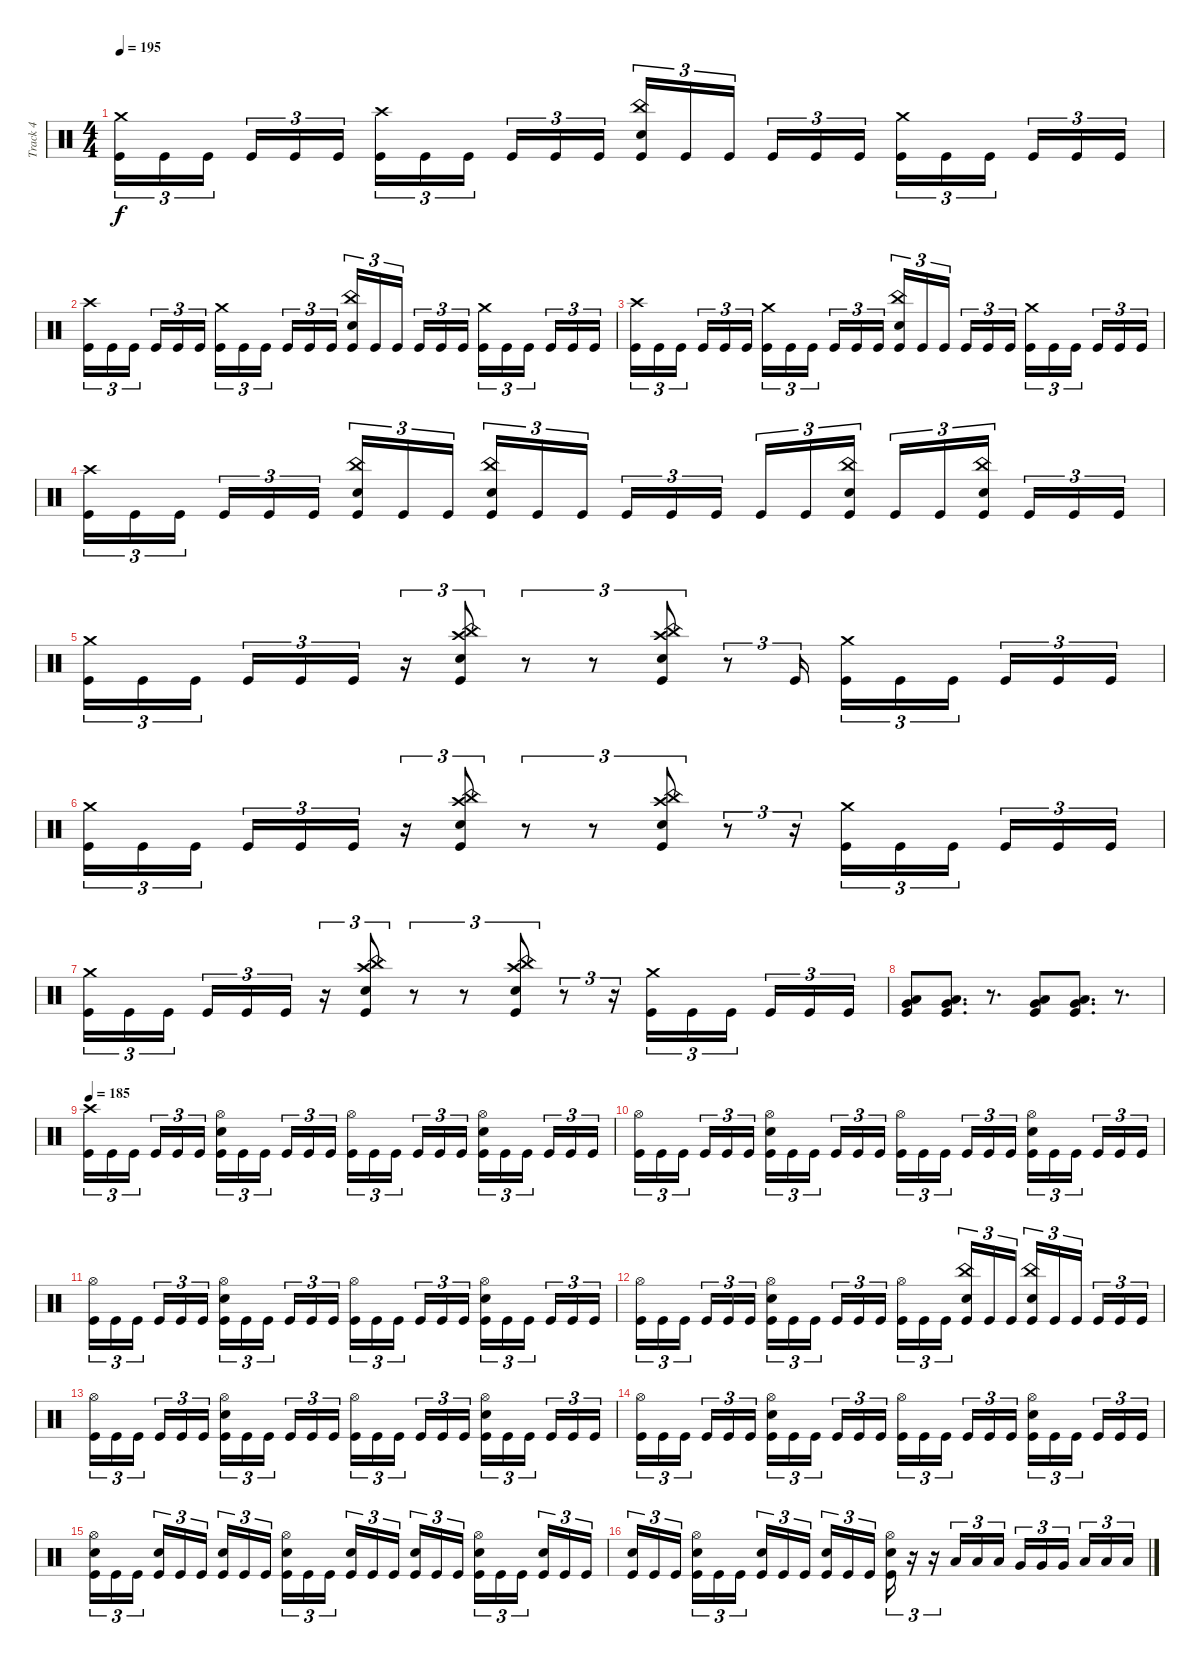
\track ("Track 4" "Track 4") {instrument percussion}
\staff {score}
\articulation defaults
\ts (4 4)
\tempo 195
\clef neutral
\ks c
("Crash medium (hit)" "Kick (hit)").16{tu (3 2) dy f} "Kick (hit)".16{tu (3 2)} "Kick (hit)".16{tu (3 2)} "Kick (hit)".16{tu (3 2)} "Kick (hit)".16{tu (3 2)} "Kick (hit)".16{tu (3 2)} ("Crash high (hit)" "Kick (hit)").16{tu (3 2)} "Kick (hit)".16{tu (3 2)} "Kick (hit)".16{tu (3 2)} "Kick (hit)".16{tu (3 2)} "Kick (hit)".16{tu (3 2)} "Kick (hit)".16{tu (3 2)} ("China (hit)" "Electric Snare (hit)" "Kick (hit)").16{tu (3 2)} "Kick (hit)".16{tu (3 2)} "Kick (hit)".16{tu (3 2)} "Kick (hit)".16{tu (3 2)} "Kick (hit)".16{tu (3 2)} "Kick (hit)".16{tu (3 2)} ("Crash medium (hit)" "Kick (hit)").16{tu (3 2)} "Kick (hit)".16{tu (3 2)} "Kick (hit)".16{tu (3 2)} "Kick (hit)".16{tu (3 2)} "Kick (hit)".16{tu (3 2)} "Kick (hit)".16{tu (3 2)} |
("Crash high (hit)" "Kick (hit)").16{tu (3 2)} "Kick (hit)".16{tu (3 2)} "Kick (hit)".16{tu (3 2)} "Kick (hit)".16{tu (3 2)} "Kick (hit)".16{tu (3 2)} "Kick (hit)".16{tu (3 2)} ("Crash medium (hit)" "Kick (hit)").16{tu (3 2)} "Kick (hit)".16{tu (3 2)} "Kick (hit)".16{tu (3 2)} "Kick (hit)".16{tu (3 2)} "Kick (hit)".16{tu (3 2)} "Kick (hit)".16{tu (3 2)} ("China (hit)" "Electric Snare (hit)" "Kick (hit)").16{tu (3 2)} "Kick (hit)".16{tu (3 2)} "Kick (hit)".16{tu (3 2)} "Kick (hit)".16{tu (3 2)} "Kick (hit)".16{tu (3 2)} "Kick (hit)".16{tu (3 2)} ("Crash medium (hit)" "Kick (hit)").16{tu (3 2)} "Kick (hit)".16{tu (3 2)} "Kick (hit)".16{tu (3 2)} "Kick (hit)".16{tu (3 2)} "Kick (hit)".16{tu (3 2)} "Kick (hit)".16{tu (3 2)} |
("Crash high (hit)" "Kick (hit)").16{tu (3 2)} "Kick (hit)".16{tu (3 2)} "Kick (hit)".16{tu (3 2)} "Kick (hit)".16{tu (3 2)} "Kick (hit)".16{tu (3 2)} "Kick (hit)".16{tu (3 2)} ("Crash medium (hit)" "Kick (hit)").16{tu (3 2)} "Kick (hit)".16{tu (3 2)} "Kick (hit)".16{tu (3 2)} "Kick (hit)".16{tu (3 2)} "Kick (hit)".16{tu (3 2)} "Kick (hit)".16{tu (3 2)} ("China (hit)" "Electric Snare (hit)" "Kick (hit)").16{tu (3 2)} "Kick (hit)".16{tu (3 2)} "Kick (hit)".16{tu (3 2)} "Kick (hit)".16{tu (3 2)} "Kick (hit)".16{tu (3 2)} "Kick (hit)".16{tu (3 2)} ("Crash medium (hit)" "Kick (hit)").16{tu (3 2)} "Kick (hit)".16{tu (3 2)} "Kick (hit)".16{tu (3 2)} "Kick (hit)".16{tu (3 2)} "Kick (hit)".16{tu (3 2)} "Kick (hit)".16{tu (3 2)} |
("Crash high (hit)" "Kick (hit)").16{tu (3 2)} "Kick (hit)".16{tu (3 2)} "Kick (hit)".16{tu (3 2)} "Kick (hit)".16{tu (3 2)} "Kick (hit)".16{tu (3 2)} "Kick (hit)".16{tu (3 2)} ("China (hit)" "Electric Snare (hit)" "Kick (hit)").16{tu (3 2)} "Kick (hit)".16{tu (3 2)} "Kick (hit)".16{tu (3 2)} ("China (hit)" "Electric Snare (hit)" "Kick (hit)").16{tu (3 2)} "Kick (hit)".16{tu (3 2)} "Kick (hit)".16{tu (3 2)} "Kick (hit)".16{tu (3 2)} "Kick (hit)".16{tu (3 2)} "Kick (hit)".16{tu (3 2)} "Kick (hit)".16{tu (3 2)} "Kick (hit)".16{tu (3 2)} ("China (hit)" "Electric Snare (hit)" "Kick (hit)").16{tu (3 2)} "Kick (hit)".16{tu (3 2)} "Kick (hit)".16{tu (3 2)} ("China (hit)" "Electric Snare (hit)" "Kick (hit)").16{tu (3 2)} "Kick (hit)".16{tu (3 2)} "Kick (hit)".16{tu (3 2)} "Kick (hit)".16{tu (3 2)} |
("Crash medium (hit)" "Kick (hit)").16{tu (3 2)} "Kick (hit)".16{tu (3 2)} "Kick (hit)".16{tu (3 2)} "Kick (hit)".16{tu (3 2)} "Kick (hit)".16{tu (3 2)} "Kick (hit)".16{tu (3 2)} r.16{tu (3 2)} ("Crash high (hit)" "China (hit)" "Electric Snare (hit)" "Kick (hit)").8{tu (3 2)} r.8{tu (3 2)} r.8{tu (3 2)} ("Crash high (hit)" "China (hit)" "Electric Snare (hit)" "Kick (hit)").8{tu (3 2)} r.8{tu (3 2)} "Kick (hit)".16{tu (3 2)} ("Crash medium (hit)" "Kick (hit)").16{tu (3 2)} "Kick (hit)".16{tu (3 2)} "Kick (hit)".16{tu (3 2)} "Kick (hit)".16{tu (3 2)} "Kick (hit)".16{tu (3 2)} "Kick (hit)".16{tu (3 2)} |
("Crash medium (hit)" "Kick (hit)").16{tu (3 2)} "Kick (hit)".16{tu (3 2)} "Kick (hit)".16{tu (3 2)} "Kick (hit)".16{tu (3 2)} "Kick (hit)".16{tu (3 2)} "Kick (hit)".16{tu (3 2)} r.16{tu (3 2)} ("Crash high (hit)" "China (hit)" "Electric Snare (hit)" "Kick (hit)").8{tu (3 2)} r.8{tu (3 2)} r.8{tu (3 2)} ("Crash high (hit)" "China (hit)" "Electric Snare (hit)" "Kick (hit)").8{tu (3 2)} r.8{tu (3 2)} r.16{tu (3 2)} ("Crash medium (hit)" "Kick (hit)").16{tu (3 2)} "Kick (hit)".16{tu (3 2)} "Kick (hit)".16{tu (3 2)} "Kick (hit)".16{tu (3 2)} "Kick (hit)".16{tu (3 2)} "Kick (hit)".16{tu (3 2)} |
("Crash medium (hit)" "Kick (hit)").16{tu (3 2)} "Kick (hit)".16{tu (3 2)} "Kick (hit)".16{tu (3 2)} "Kick (hit)".16{tu (3 2)} "Kick (hit)".16{tu (3 2)} "Kick (hit)".16{tu (3 2)} r.16{tu (3 2)} ("Crash high (hit)" "China (hit)" "Electric Snare (hit)" "Kick (hit)").8{tu (3 2)} r.8{tu (3 2)} r.8{tu (3 2)} ("Crash high (hit)" "China (hit)" "Electric Snare (hit)" "Kick (hit)").8{tu (3 2)} r.8{tu (3 2)} r.16{tu (3 2)} ("Crash medium (hit)" "Kick (hit)").16{tu (3 2)} "Kick (hit)".16{tu (3 2)} "Kick (hit)".16{tu (3 2)} "Kick (hit)".16{tu (3 2)} "Kick (hit)".16{tu (3 2)} "Kick (hit)".16{tu (3 2)} |
("Very Low Tom (hit)" "Low Floor Tom (hit)" "Kick (hit)").8 ("Very Low Tom (hit)" "Low Floor Tom (hit)" "Kick (hit)").8{d} r.8{d} ("Very Low Tom (hit)" "Low Floor Tom (hit)" "Kick (hit)").8 ("Very Low Tom (hit)" "Low Floor Tom (hit)" "Kick (hit)").8{d} r.8{d} |
\tempo 185
("Crash high (hit)" "Kick (hit)").16{tu (3 2)} "Kick (hit)".16{tu (3 2)} "Kick (hit)".16{tu (3 2)} "Kick (hit)".16{tu (3 2)} "Kick (hit)".16{tu (3 2)} "Kick (hit)".16{tu (3 2)} ("Hi-Hat (open)" "Electric Snare (hit)" "Kick (hit)").16{tu (3 2)} "Kick (hit)".16{tu (3 2)} "Kick (hit)".16{tu (3 2)} "Kick (hit)".16{tu (3 2)} "Kick (hit)".16{tu (3 2)} "Kick (hit)".16{tu (3 2)} ("Hi-Hat (open)" "Kick (hit)").16{tu (3 2)} "Kick (hit)".16{tu (3 2)} "Kick (hit)".16{tu (3 2)} "Kick (hit)".16{tu (3 2)} "Kick (hit)".16{tu (3 2)} "Kick (hit)".16{tu (3 2)} ("Hi-Hat (open)" "Electric Snare (hit)" "Kick (hit)").16{tu (3 2)} "Kick (hit)".16{tu (3 2)} "Kick (hit)".16{tu (3 2)} "Kick (hit)".16{tu (3 2)} "Kick (hit)".16{tu (3 2)} "Kick (hit)".16{tu (3 2)} |
("Hi-Hat (open)" "Kick (hit)").16{tu (3 2)} "Kick (hit)".16{tu (3 2)} "Kick (hit)".16{tu (3 2)} "Kick (hit)".16{tu (3 2)} "Kick (hit)".16{tu (3 2)} "Kick (hit)".16{tu (3 2)} ("Hi-Hat (open)" "Electric Snare (hit)" "Kick (hit)").16{tu (3 2)} "Kick (hit)".16{tu (3 2)} "Kick (hit)".16{tu (3 2)} "Kick (hit)".16{tu (3 2)} "Kick (hit)".16{tu (3 2)} "Kick (hit)".16{tu (3 2)} ("Hi-Hat (open)" "Kick (hit)").16{tu (3 2)} "Kick (hit)".16{tu (3 2)} "Kick (hit)".16{tu (3 2)} "Kick (hit)".16{tu (3 2)} "Kick (hit)".16{tu (3 2)} "Kick (hit)".16{tu (3 2)} ("Hi-Hat (open)" "Electric Snare (hit)" "Kick (hit)").16{tu (3 2)} "Kick (hit)".16{tu (3 2)} "Kick (hit)".16{tu (3 2)} "Kick (hit)".16{tu (3 2)} "Kick (hit)".16{tu (3 2)} "Kick (hit)".16{tu (3 2)} |
("Hi-Hat (open)" "Kick (hit)").16{tu (3 2)} "Kick (hit)".16{tu (3 2)} "Kick (hit)".16{tu (3 2)} "Kick (hit)".16{tu (3 2)} "Kick (hit)".16{tu (3 2)} "Kick (hit)".16{tu (3 2)} ("Hi-Hat (open)" "Electric Snare (hit)" "Kick (hit)").16{tu (3 2)} "Kick (hit)".16{tu (3 2)} "Kick (hit)".16{tu (3 2)} "Kick (hit)".16{tu (3 2)} "Kick (hit)".16{tu (3 2)} "Kick (hit)".16{tu (3 2)} ("Hi-Hat (open)" "Kick (hit)").16{tu (3 2)} "Kick (hit)".16{tu (3 2)} "Kick (hit)".16{tu (3 2)} "Kick (hit)".16{tu (3 2)} "Kick (hit)".16{tu (3 2)} "Kick (hit)".16{tu (3 2)} ("Hi-Hat (open)" "Electric Snare (hit)" "Kick (hit)").16{tu (3 2)} "Kick (hit)".16{tu (3 2)} "Kick (hit)".16{tu (3 2)} "Kick (hit)".16{tu (3 2)} "Kick (hit)".16{tu (3 2)} "Kick (hit)".16{tu (3 2)} |
("Hi-Hat (open)" "Kick (hit)").16{tu (3 2)} "Kick (hit)".16{tu (3 2)} "Kick (hit)".16{tu (3 2)} "Kick (hit)".16{tu (3 2)} "Kick (hit)".16{tu (3 2)} "Kick (hit)".16{tu (3 2)} ("Hi-Hat (open)" "Electric Snare (hit)" "Kick (hit)").16{tu (3 2)} "Kick (hit)".16{tu (3 2)} "Kick (hit)".16{tu (3 2)} "Kick (hit)".16{tu (3 2)} "Kick (hit)".16{tu (3 2)} "Kick (hit)".16{tu (3 2)} ("Hi-Hat (open)" "Kick (hit)").16{tu (3 2)} "Kick (hit)".16{tu (3 2)} "Kick (hit)".16{tu (3 2)} ("China (hit)" "Electric Snare (hit)" "Kick (hit)").16{tu (3 2)} "Kick (hit)".16{tu (3 2)} "Kick (hit)".16{tu (3 2)} ("China (hit)" "Electric Snare (hit)" "Kick (hit)").16{tu (3 2)} "Kick (hit)".16{tu (3 2)} "Kick (hit)".16{tu (3 2)} "Kick (hit)".16{tu (3 2)} "Kick (hit)".16{tu (3 2)} "Kick (hit)".16{tu (3 2)} |
("Hi-Hat (open)" "Kick (hit)").16{tu (3 2)} "Kick (hit)".16{tu (3 2)} "Kick (hit)".16{tu (3 2)} "Kick (hit)".16{tu (3 2)} "Kick (hit)".16{tu (3 2)} "Kick (hit)".16{tu (3 2)} ("Hi-Hat (open)" "Electric Snare (hit)" "Kick (hit)").16{tu (3 2)} "Kick (hit)".16{tu (3 2)} "Kick (hit)".16{tu (3 2)} "Kick (hit)".16{tu (3 2)} "Kick (hit)".16{tu (3 2)} "Kick (hit)".16{tu (3 2)} ("Hi-Hat (open)" "Kick (hit)").16{tu (3 2)} "Kick (hit)".16{tu (3 2)} "Kick (hit)".16{tu (3 2)} "Kick (hit)".16{tu (3 2)} "Kick (hit)".16{tu (3 2)} "Kick (hit)".16{tu (3 2)} ("Hi-Hat (open)" "Electric Snare (hit)" "Kick (hit)").16{tu (3 2)} "Kick (hit)".16{tu (3 2)} "Kick (hit)".16{tu (3 2)} "Kick (hit)".16{tu (3 2)} "Kick (hit)".16{tu (3 2)} "Kick (hit)".16{tu (3 2)} |
("Hi-Hat (open)" "Kick (hit)").16{tu (3 2)} "Kick (hit)".16{tu (3 2)} "Kick (hit)".16{tu (3 2)} "Kick (hit)".16{tu (3 2)} "Kick (hit)".16{tu (3 2)} "Kick (hit)".16{tu (3 2)} ("Hi-Hat (open)" "Electric Snare (hit)" "Kick (hit)").16{tu (3 2)} "Kick (hit)".16{tu (3 2)} "Kick (hit)".16{tu (3 2)} "Kick (hit)".16{tu (3 2)} "Kick (hit)".16{tu (3 2)} "Kick (hit)".16{tu (3 2)} ("Hi-Hat (open)" "Kick (hit)").16{tu (3 2)} "Kick (hit)".16{tu (3 2)} "Kick (hit)".16{tu (3 2)} "Kick (hit)".16{tu (3 2)} "Kick (hit)".16{tu (3 2)} "Kick (hit)".16{tu (3 2)} ("Hi-Hat (open)" "Electric Snare (hit)" "Kick (hit)").16{tu (3 2)} "Kick (hit)".16{tu (3 2)} "Kick (hit)".16{tu (3 2)} "Kick (hit)".16{tu (3 2)} "Kick (hit)".16{tu (3 2)} "Kick (hit)".16{tu (3 2)} |
("Hi-Hat (open)" "Electric Snare (hit)" "Kick (hit)").16{tu (3 2)} "Kick (hit)".16{tu (3 2)} "Kick (hit)".16{tu (3 2)} ("Electric Snare (hit)" "Kick (hit)").16{tu (3 2)} "Kick (hit)".16{tu (3 2)} "Kick (hit)".16{tu (3 2)} ("Electric Snare (hit)" "Kick (hit)").16{tu (3 2)} "Kick (hit)".16{tu (3 2)} "Kick (hit)".16{tu (3 2)} ("Hi-Hat (open)" "Electric Snare (hit)" "Kick (hit)").16{tu (3 2)} "Kick (hit)".16{tu (3 2)} "Kick (hit)".16{tu (3 2)} ("Electric Snare (hit)" "Kick (hit)").16{tu (3 2)} "Kick (hit)".16{tu (3 2)} "Kick (hit)".16{tu (3 2)} ("Electric Snare (hit)" "Kick (hit)").16{tu (3 2)} "Kick (hit)".16{tu (3 2)} "Kick (hit)".16{tu (3 2)} ("Hi-Hat (open)" "Electric Snare (hit)" "Kick (hit)").16{tu (3 2)} "Kick (hit)".16{tu (3 2)} "Kick (hit)".16{tu (3 2)} ("Electric Snare (hit)" "Kick (hit)").16{tu (3 2)} "Kick (hit)".16{tu (3 2)} "Kick (hit)".16{tu (3 2)} |
("Electric Snare (hit)" "Kick (hit)").16{tu (3 2)} "Kick (hit)".16{tu (3 2)} "Kick (hit)".16{tu (3 2)} ("Hi-Hat (open)" "Electric Snare (hit)" "Kick (hit)").16{tu (3 2)} "Kick (hit)".16{tu (3 2)} "Kick (hit)".16{tu (3 2)} ("Electric Snare (hit)" "Kick (hit)").16{tu (3 2)} "Kick (hit)".16{tu (3 2)} "Kick (hit)".16{tu (3 2)} ("Electric Snare (hit)" "Kick (hit)").16{tu (3 2)} "Kick (hit)".16{tu (3 2)} "Kick (hit)".16{tu (3 2)} ("Hi-Hat (open)" "Electric Snare (hit)" "Kick (hit)").16{tu (3 2)} r.16{tu (3 2)} r.16{tu (3 2)} "Low Tom (hit)".16{tu (3 2)} "Low Tom (hit)".16{tu (3 2)} "Low Tom (hit)".16{tu (3 2)} "Very Low Tom (hit)".16{tu (3 2)} "Very Low Tom (hit)".16{tu (3 2)} "Very Low Tom (hit)".16{tu (3 2)} "Low Floor Tom (hit)".16{tu (3 2)} "Low Floor Tom (hit)".16{tu (3 2)} "Low Floor Tom (hit)".16{tu (3 2)}
